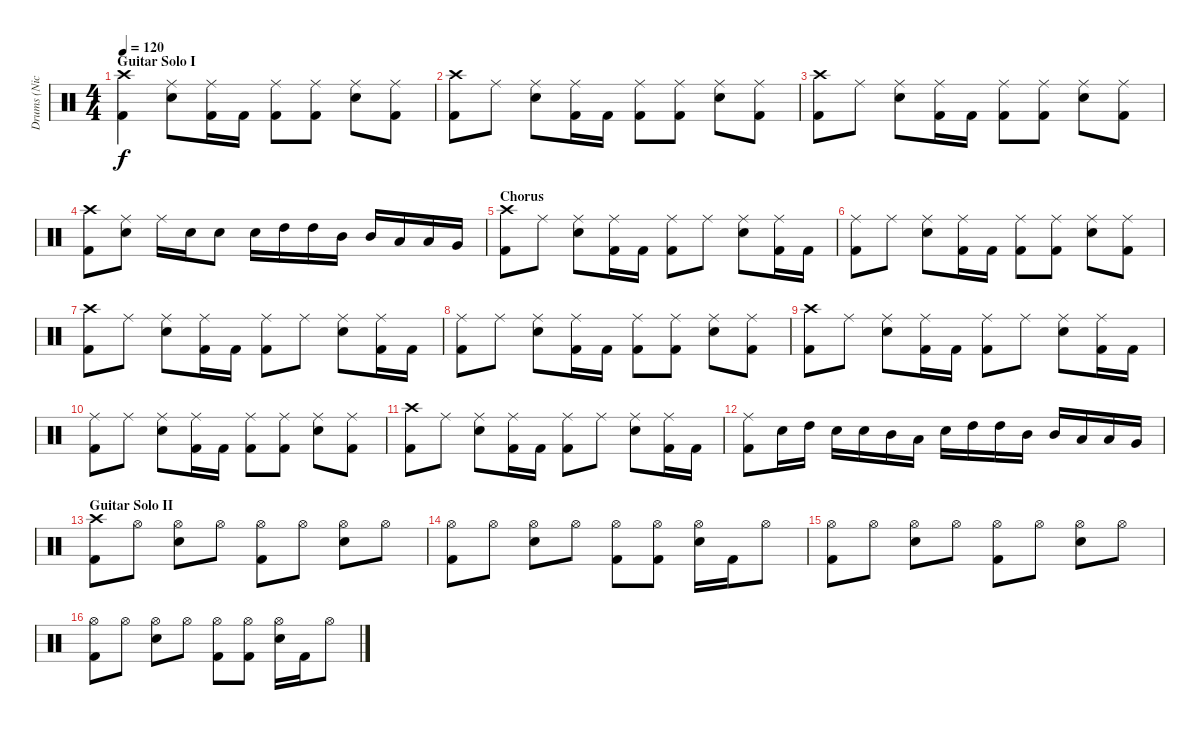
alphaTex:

\track ("Drums (Nick Menza)" "Drums (Nic") {instrument percussion}
\staff {score}
\articulation defaults
\ts (4 4)
\section ("" "Guitar Solo I")
\tempo 120
\clef neutral
\ks c
("Crash high (hit)" "Kick (hit) 2").4{dy f} ("Ride (middle)" "Snare (hit) 2").8 ("Ride (middle)" "Kick (hit) 2").16 "Kick (hit) 2".16 ("Ride (middle)" "Kick (hit) 2").8 ("Ride (middle)" "Kick (hit) 2").8 ("Ride (middle)" "Snare (hit) 2").8 ("Ride (middle)" "Kick (hit) 2").8 |
("Crash high (hit)" "Kick (hit) 2").8 "Ride (middle)".8 ("Ride (middle)" "Snare (hit) 2").8 ("Ride (middle)" "Kick (hit) 2").16 "Kick (hit) 2".16 ("Ride (middle)" "Kick (hit) 2").8 ("Ride (middle)" "Kick (hit) 2").8 ("Ride (middle)" "Snare (hit) 2").8 ("Ride (middle)" "Kick (hit) 2").8 |
("Crash high (hit)" "Kick (hit) 2").8 "Ride (middle)".8 ("Ride (middle)" "Snare (hit) 2").8 ("Ride (middle)" "Kick (hit) 2").16 "Kick (hit) 2".16 ("Ride (middle)" "Kick (hit) 2").8 ("Ride (middle)" "Kick (hit) 2").8 ("Ride (middle)" "Snare (hit) 2").8 ("Ride (middle)" "Kick (hit) 2").8 |
("Crash high (hit)" "Kick (hit) 2").8 ("Ride (middle)" "Snare (hit) 2").8 "Ride (middle)".16 "Snare (hit) 2".16 "Snare (hit) 2".8 "Snare (hit) 2".16 "High Tom (hit)".16 "High Tom (hit)".16 "Mid Tom (hit)".16 "Mid Tom (hit)".16 "Low Tom (hit)".16 "Low Tom (hit)".16 "Very Low Tom (hit)".16 |
\section ("" "Chorus")
("Crash high (hit)" "Kick (hit) 2").8 "Ride (middle)".8 ("Ride (middle)" "Snare (hit) 2").8 ("Ride (middle)" "Kick (hit) 2").16 "Kick (hit) 2".16 ("Ride (middle)" "Kick (hit) 2").8 "Ride (middle)".8 ("Ride (middle)" "Snare (hit) 2").8 ("Ride (middle)" "Kick (hit) 2").16 "Kick (hit) 2".16 |
("Ride (middle)" "Kick (hit) 2").8 "Ride (middle)".8 ("Ride (middle)" "Snare (hit) 2").8 ("Ride (middle)" "Kick (hit) 2").16 "Kick (hit) 2".16 ("Ride (middle)" "Kick (hit) 2").8 ("Ride (middle)" "Kick (hit) 2").8 ("Ride (middle)" "Snare (hit) 2").8 ("Ride (middle)" "Kick (hit) 2").8 |
("Crash high (hit)" "Kick (hit) 2").8 "Ride (middle)".8 ("Ride (middle)" "Snare (hit) 2").8 ("Ride (middle)" "Kick (hit) 2").16 "Kick (hit) 2".16 ("Ride (middle)" "Kick (hit) 2").8 "Ride (middle)".8 ("Ride (middle)" "Snare (hit) 2").8 ("Ride (middle)" "Kick (hit) 2").16 "Kick (hit) 2".16 |
("Ride (middle)" "Kick (hit) 2").8 "Ride (middle)".8 ("Ride (middle)" "Snare (hit) 2").8 ("Ride (middle)" "Kick (hit) 2").16 "Kick (hit) 2".16 ("Ride (middle)" "Kick (hit) 2").8 ("Ride (middle)" "Kick (hit) 2").8 ("Ride (middle)" "Snare (hit) 2").8 ("Ride (middle)" "Kick (hit) 2").8 |
("Crash high (hit)" "Kick (hit) 2").8 "Ride (middle)".8 ("Ride (middle)" "Snare (hit) 2").8 ("Ride (middle)" "Kick (hit) 2").16 "Kick (hit) 2".16 ("Ride (middle)" "Kick (hit) 2").8 "Ride (middle)".8 ("Ride (middle)" "Snare (hit) 2").8 ("Ride (middle)" "Kick (hit) 2").16 "Kick (hit) 2".16 |
("Ride (middle)" "Kick (hit) 2").8 "Ride (middle)".8 ("Ride (middle)" "Snare (hit) 2").8 ("Ride (middle)" "Kick (hit) 2").16 "Kick (hit) 2".16 ("Ride (middle)" "Kick (hit) 2").8 ("Ride (middle)" "Kick (hit) 2").8 ("Ride (middle)" "Snare (hit) 2").8 ("Ride (middle)" "Kick (hit) 2").8 |
("Crash high (hit)" "Kick (hit) 2").8 "Ride (middle)".8 ("Ride (middle)" "Snare (hit) 2").8 ("Ride (middle)" "Kick (hit) 2").16 "Kick (hit) 2".16 ("Ride (middle)" "Kick (hit) 2").8 "Ride (middle)".8 ("Ride (middle)" "Snare (hit) 2").8 ("Ride (middle)" "Kick (hit) 2").16 "Kick (hit) 2".16 |
("Ride (middle)" "Kick (hit) 2").8 "Snare (hit) 2".16 "High Tom (hit)".16 "Snare (hit) 2".16 "Snare (hit) 2".16 "Mid Tom (hit)".16 "Low Tom (hit)".16 "Snare (hit) 2".16 "High Tom (hit)".16 "High Tom (hit)".16 "Mid Tom (hit)".16 "Mid Tom (hit)".16 "Low Tom (hit)".16 "Low Tom (hit)".16 "Very Low Tom (hit)".16 |
\section ("" "Guitar Solo II")
("Crash high (hit)" "Kick (hit) 2").8 "Hi-Hat (open)".8 ("Hi-Hat (open)" "Snare (hit) 2").8 "Hi-Hat (open)".8 ("Hi-Hat (open)" "Kick (hit) 2").8 "Hi-Hat (open)".8 ("Hi-Hat (open)" "Snare (hit) 2").8 "Hi-Hat (open)".8 |
("Hi-Hat (open)" "Kick (hit) 2").8 "Hi-Hat (open)".8 ("Hi-Hat (open)" "Snare (hit) 2").8 "Hi-Hat (open)".8 ("Hi-Hat (open)" "Kick (hit) 2").8 ("Hi-Hat (open)" "Kick (hit) 2").8 ("Hi-Hat (open)" "Snare (hit) 2").16 "Kick (hit) 2".16 "Hi-Hat (open)".8 |
("Hi-Hat (open)" "Kick (hit) 2").8 "Hi-Hat (open)".8 ("Hi-Hat (open)" "Snare (hit) 2").8 "Hi-Hat (open)".8 ("Hi-Hat (open)" "Kick (hit) 2").8 "Hi-Hat (open)".8 ("Hi-Hat (open)" "Snare (hit) 2").8 "Hi-Hat (open)".8 |
("Hi-Hat (open)" "Kick (hit) 2").8 "Hi-Hat (open)".8 ("Hi-Hat (open)" "Snare (hit) 2").8 "Hi-Hat (open)".8 ("Hi-Hat (open)" "Kick (hit) 2").8 ("Hi-Hat (open)" "Kick (hit) 2").8 ("Hi-Hat (open)" "Snare (hit) 2").16 "Kick (hit) 2".16 "Hi-Hat (open)".8
